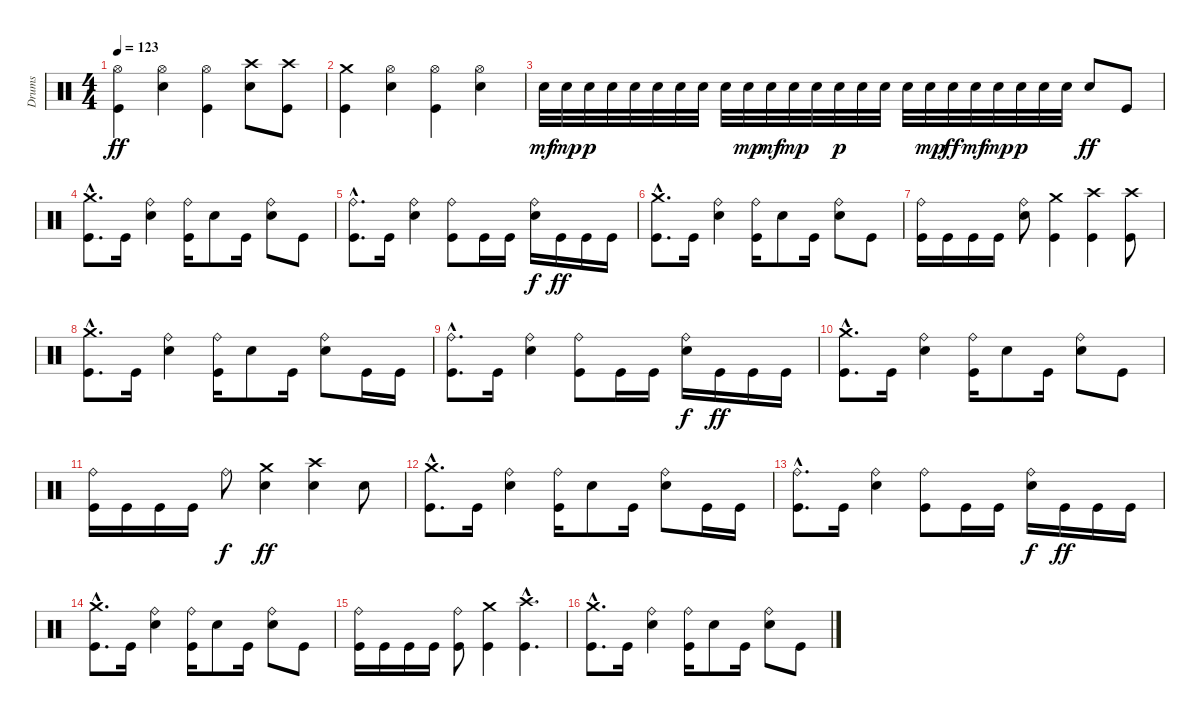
\track ("Drums" "Drums") {instrument percussion}
\staff {score}
\articulation defaults
\ts (4 4)
\tempo 123
\clef neutral
\ks c
("Hi-Hat (open)" "Kick (hit)").4{dy ff} ("Hi-Hat (open)" "Electric Snare (hit)").4 ("Hi-Hat (open)" "Kick (hit)").4 ("Crash high (hit)" "Electric Snare (hit)").8 ("Crash high (hit)" "Kick (hit)").8 |
("Crash medium (hit)" "Kick (hit)").4 ("Hi-Hat (open)" "Electric Snare (hit)").4 ("Hi-Hat (open)" "Kick (hit)").4 ("Hi-Hat (open)" "Electric Snare (hit)").4 |
"Electric Snare (hit)".32{dy mf} "Electric Snare (hit)".32{dy mp} "Electric Snare (hit)".32{dy p} "Electric Snare (hit)".32 "Electric Snare (hit)".32 "Electric Snare (hit)".32 "Electric Snare (hit)".32 "Electric Snare (hit)".32 "Electric Snare (hit)".32 "Electric Snare (hit)".32{dy mp} "Electric Snare (hit)".32{dy mf} "Electric Snare (hit)".32{dy mp} "Electric Snare (hit)".32 "Electric Snare (hit)".32{dy p} "Electric Snare (hit)".32 "Electric Snare (hit)".32 "Electric Snare (hit)".32 "Electric Snare (hit)".32{dy mp} "Electric Snare (hit)".32{dy ff} "Electric Snare (hit)".32{dy mf} "Electric Snare (hit)".32{dy mp} "Electric Snare (hit)".32{dy p} "Electric Snare (hit)".32 "Electric Snare (hit)".32 "Electric Snare (hit)".8{dy ff} "Kick (hit)".8 |
("Crash medium (hit)"{hac} "Kick (hit)"{hac}).8{d} "Kick (hit)".16 ("Ride (bell)" "Electric Snare (hit)").4 ("Ride (bell)" "Kick (hit)").16 "Electric Snare (hit)".8 "Kick (hit)".16 ("Ride (bell)" "Electric Snare (hit)").8 "Kick (hit)".8 |
("Ride (bell)"{hac} "Kick (hit)"{hac}).8{d} "Kick (hit)".16 ("Ride (bell)" "Electric Snare (hit)").4 ("Ride (bell)" "Kick (hit)").8 "Kick (hit)".16 "Kick (hit)".16 ("Ride (bell)" "Electric Snare (hit)").16{dy f} "Kick (hit)".16{dy ff} "Kick (hit)".16 "Kick (hit)".16 |
("Crash medium (hit)"{hac} "Kick (hit)"{hac}).8{d} "Kick (hit)".16 ("Ride (bell)" "Electric Snare (hit)").4 ("Ride (bell)" "Kick (hit)").16 "Electric Snare (hit)".8 "Kick (hit)".16 ("Ride (bell)" "Electric Snare (hit)").8 "Kick (hit)".8 |
("Ride (bell)" "Kick (hit)").16 "Kick (hit)".16 "Kick (hit)".16 "Kick (hit)".16 ("Ride (bell)" "Electric Snare (hit)").8 ("Crash medium (hit)" "Kick (hit)").4 ("Crash high (hit)" "Kick (hit)").4 ("Crash high (hit)" "Kick (hit)").8 |
("Crash medium (hit)"{hac} "Kick (hit)"{hac}).8{d} "Kick (hit)".16 ("Ride (bell)" "Electric Snare (hit)").4 ("Ride (bell)" "Kick (hit)").16 "Electric Snare (hit)".8 "Kick (hit)".16 ("Ride (bell)" "Electric Snare (hit)").8 "Kick (hit)".16 "Kick (hit)".16 |
("Ride (bell)"{hac} "Kick (hit)"{hac}).8{d} "Kick (hit)".16 ("Ride (bell)" "Electric Snare (hit)").4 ("Ride (bell)" "Kick (hit)").8 "Kick (hit)".16 "Kick (hit)".16 ("Ride (bell)" "Electric Snare (hit)").16{dy f} "Kick (hit)".16{dy ff} "Kick (hit)".16 "Kick (hit)".16 |
("Crash medium (hit)"{hac} "Kick (hit)"{hac}).8{d} "Kick (hit)".16 ("Ride (bell)" "Electric Snare (hit)").4 ("Ride (bell)" "Kick (hit)").16 "Electric Snare (hit)".8 "Kick (hit)".16 ("Ride (bell)" "Electric Snare (hit)").8 "Kick (hit)".8 |
("Ride (bell)" "Kick (hit)").16 "Kick (hit)".16 "Kick (hit)".16 "Kick (hit)".16 "Ride (bell)".8{dy f} ("Crash medium (hit)" "Electric Snare (hit)").4{dy ff} ("Crash high (hit)" "Electric Snare (hit)").4 "Electric Snare (hit)".8 |
("Crash medium (hit)"{hac} "Kick (hit)"{hac}).8{d} "Kick (hit)".16 ("Ride (bell)" "Electric Snare (hit)").4 ("Ride (bell)" "Kick (hit)").16 "Electric Snare (hit)".8 "Kick (hit)".16 ("Ride (bell)" "Electric Snare (hit)").8 "Kick (hit)".16 "Kick (hit)".16 |
("Ride (bell)"{hac} "Kick (hit)"{hac}).8{d} "Kick (hit)".16 ("Ride (bell)" "Electric Snare (hit)").4 ("Ride (bell)" "Kick (hit)").8 "Kick (hit)".16 "Kick (hit)".16 ("Ride (bell)" "Electric Snare (hit)").16{dy f} "Kick (hit)".16{dy ff} "Kick (hit)".16 "Kick (hit)".16 |
("Crash medium (hit)"{hac} "Kick (hit)"{hac}).8{d} "Kick (hit)".16 ("Ride (bell)" "Electric Snare (hit)").4 ("Ride (bell)" "Kick (hit)").16 "Electric Snare (hit)".8 "Kick (hit)".16 ("Ride (bell)" "Electric Snare (hit)").8 "Kick (hit)".8 |
("Ride (bell)" "Kick (hit)").16 "Kick (hit)".16 "Kick (hit)".16 "Kick (hit)".16 ("Ride (bell)" "Kick (hit)").8 ("Crash medium (hit)" "Kick (hit)").4 ("Crash high (hit)"{hac} "Kick (hit)"{hac}).4{d} |
("Crash medium (hit)"{hac} "Kick (hit)"{hac}).8{d} "Kick (hit)".16 ("Ride (bell)" "Electric Snare (hit)").4 ("Ride (bell)" "Kick (hit)").16 "Electric Snare (hit)".8 "Kick (hit)".16 ("Ride (bell)" "Electric Snare (hit)").8 "Kick (hit)".8
